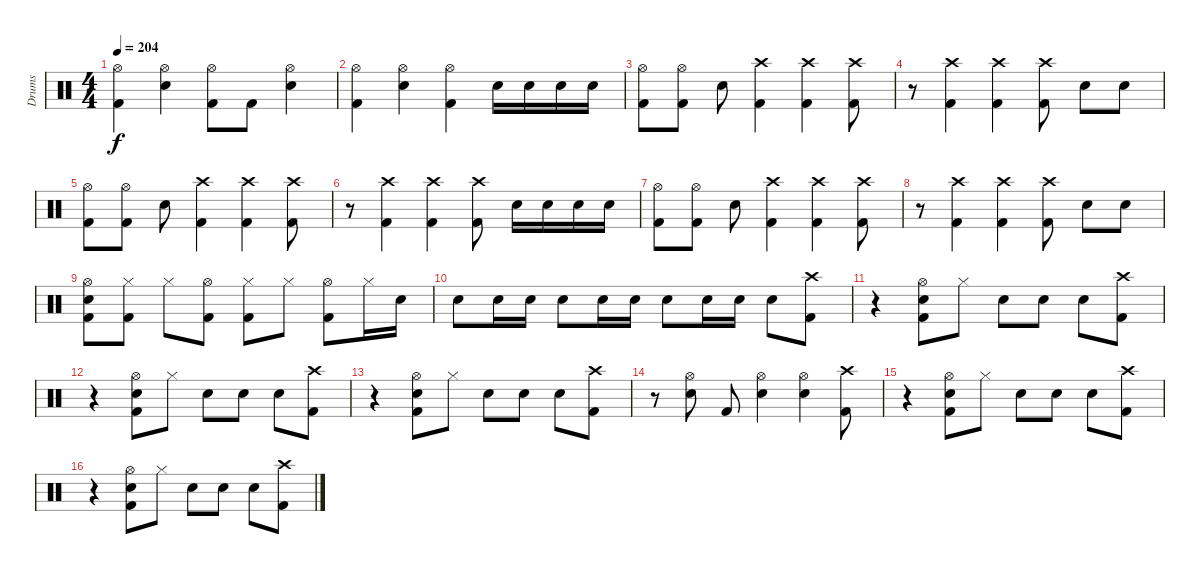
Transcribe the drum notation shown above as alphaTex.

\track ("Drums" "Drums") {instrument percussion}
\staff {score}
\articulation defaults
\ts (4 4)
\tempo 204
\clef neutral
\ks c
("Hi-Hat (open)" "Kick (hit) 2").4{dy f} ("Hi-Hat (open)" "Electric Snare (hit)").4 ("Hi-Hat (open)" "Kick (hit) 2").8 "Kick (hit) 2".8 ("Hi-Hat (open)" "Electric Snare (hit)").4 |
("Hi-Hat (open)" "Kick (hit) 2").4 ("Hi-Hat (open)" "Electric Snare (hit)").4 ("Hi-Hat (open)" "Kick (hit) 2").4 "Electric Snare (hit)".16 "Electric Snare (hit)".16 "Electric Snare (hit)".16 "Electric Snare (hit)".16 |
("Kick (hit) 2" "Hi-Hat (open)").8 ("Kick (hit) 2" "Hi-Hat (open)").8 "Electric Snare (hit)".8 ("Kick (hit) 2" "Crash high (hit)").4 ("Kick (hit) 2" "Crash high (hit)").4 ("Kick (hit) 2" "Crash high (hit)").8 |
r.8 ("Kick (hit) 2" "Crash high (hit)").4 ("Kick (hit) 2" "Crash high (hit)").4 ("Kick (hit) 2" "Crash high (hit)").8 "Electric Snare (hit)".8 "Electric Snare (hit)".8 |
("Kick (hit) 2" "Hi-Hat (open)").8 ("Kick (hit) 2" "Hi-Hat (open)").8 "Electric Snare (hit)".8 ("Kick (hit) 2" "Crash high (hit)").4 ("Kick (hit) 2" "Crash high (hit)").4 ("Kick (hit) 2" "Crash high (hit)").8 |
r.8 ("Kick (hit) 2" "Crash high (hit)").4 ("Kick (hit) 2" "Crash high (hit)").4 ("Kick (hit) 2" "Crash high (hit)").8 "Electric Snare (hit)".16 "Electric Snare (hit)".16 "Electric Snare (hit)".16 "Electric Snare (hit)".16 |
("Kick (hit) 2" "Hi-Hat (open)").8 ("Kick (hit) 2" "Hi-Hat (open)").8 "Electric Snare (hit)".8 ("Kick (hit) 2" "Crash high (hit)").4 ("Kick (hit) 2" "Crash high (hit)").4 ("Kick (hit) 2" "Crash high (hit)").8 |
r.8 ("Kick (hit) 2" "Crash high (hit)").4 ("Kick (hit) 2" "Crash high (hit)").4 ("Kick (hit) 2" "Crash high (hit)").8 "Electric Snare (hit)".8 "Electric Snare (hit)".8 |
("Hi-Hat (open)" "Kick (hit) 2" "Electric Snare (hit)").8 ("Hi-Hat (closed)" "Kick (hit) 2").8 "Hi-Hat (closed)".8 ("Hi-Hat (open)" "Kick (hit) 2").8 ("Hi-Hat (closed)" "Kick (hit) 2").8 "Hi-Hat (closed)".8 ("Hi-Hat (open)" "Kick (hit) 2").8 "Hi-Hat (closed)".16 "Electric Snare (hit)".16 |
"Electric Snare (hit)".8 "Electric Snare (hit)".16 "Electric Snare (hit)".16 "Electric Snare (hit)".8 "Electric Snare (hit)".16 "Electric Snare (hit)".16 "Electric Snare (hit)".8 "Electric Snare (hit)".16 "Electric Snare (hit)".16 "Electric Snare (hit)".8 ("Kick (hit) 2" "Crash high (hit)").8 |
r.4 ("Electric Snare (hit)" "Kick (hit) 2" "Hi-Hat (open)").8 "Hi-Hat (closed)".8 "Electric Snare (hit)".8 "Electric Snare (hit)".8 "Electric Snare (hit)".8 ("Kick (hit) 2" "Crash high (hit)").8 |
r.4 ("Electric Snare (hit)" "Kick (hit) 2" "Hi-Hat (open)").8 "Hi-Hat (closed)".8 "Electric Snare (hit)".8 "Electric Snare (hit)".8 "Electric Snare (hit)".8 ("Kick (hit) 2" "Crash high (hit)").8 |
r.4 ("Electric Snare (hit)" "Kick (hit) 2" "Hi-Hat (open)").8 "Hi-Hat (closed)".8 "Electric Snare (hit)".8 "Electric Snare (hit)".8 "Electric Snare (hit)".8 ("Kick (hit) 2" "Crash high (hit)").8 |
r.8 ("Electric Snare (hit)" "Hi-Hat (open)").8 "Kick (hit) 2".8 ("Electric Snare (hit)" "Hi-Hat (open)").4 ("Electric Snare (hit)" "Hi-Hat (open)").4 ("Crash high (hit)" "Kick (hit) 2").8 |
r.4 ("Electric Snare (hit)" "Kick (hit) 2" "Hi-Hat (open)").8 "Hi-Hat (closed)".8 "Electric Snare (hit)".8 "Electric Snare (hit)".8 "Electric Snare (hit)".8 ("Kick (hit) 2" "Crash high (hit)").8 |
r.4 ("Electric Snare (hit)" "Kick (hit) 2" "Hi-Hat (open)").8 "Hi-Hat (closed)".8 "Electric Snare (hit)".8 "Electric Snare (hit)".8 "Electric Snare (hit)".8 ("Kick (hit) 2" "Crash high (hit)").8
